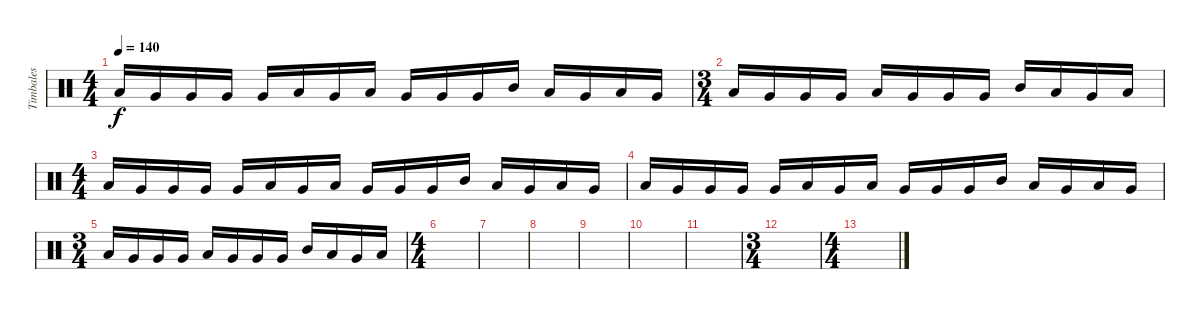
\track ("Timbales" "Timbales") {instrument percussion}
\staff {score}
\articulation defaults
\ts (4 4)
\tempo 140
\clef neutral
\ks c "Low Tom (hit)".16{dy f} "Very Low Tom (hit)".16 "Very Low Tom (hit)".16 "Very Low Tom (hit)".16 "Very Low Tom (hit)".16 "Low Tom (hit)".16 "Very Low Tom (hit)".16 "Low Tom (hit)".16 "Very Low Tom (hit)".16 "Very Low Tom (hit)".16 "Very Low Tom (hit)".16 "Mid Tom (hit)".16 "Low Tom (hit)".16 "Very Low Tom (hit)".16 "Low Floor Tom (hit)".16 "Very Low Tom (hit)".16
|
\ts (3 4)
"Low Tom (hit)".16 "Very Low Tom (hit)".16 "Very Low Tom (hit)".16 "Very Low Tom (hit)".16 "Low Tom (hit)".16 "Very Low Tom (hit)".16 "Very Low Tom (hit)".16 "Very Low Tom (hit)".16 "Mid Tom (hit)".16 "Low Tom (hit)".16 "Very Low Tom (hit)".16 "Low Floor Tom (hit)".16 |
\ts (4 4)
"Low Tom (hit)".16 "Very Low Tom (hit)".16 "Very Low Tom (hit)".16 "Very Low Tom (hit)".16 "Very Low Tom (hit)".16 "Low Tom (hit)".16 "Very Low Tom (hit)".16 "Low Tom (hit)".16 "Very Low Tom (hit)".16 "Very Low Tom (hit)".16 "Very Low Tom (hit)".16 "Mid Tom (hit)".16 "Low Tom (hit)".16 "Very Low Tom (hit)".16 "Low Floor Tom (hit)".16 "Very Low Tom (hit)".16 |
"Low Tom (hit)".16 "Very Low Tom (hit)".16 "Very Low Tom (hit)".16 "Very Low Tom (hit)".16 "Very Low Tom (hit)".16 "Low Tom (hit)".16 "Very Low Tom (hit)".16 "Low Tom (hit)".16 "Very Low Tom (hit)".16 "Very Low Tom (hit)".16 "Very Low Tom (hit)".16 "Mid Tom (hit)".16 "Low Tom (hit)".16 "Very Low Tom (hit)".16 "Low Floor Tom (hit)".16 "Very Low Tom (hit)".16 |
\ts (3 4)
"Low Tom (hit)".16 "Very Low Tom (hit)".16 "Very Low Tom (hit)".16 "Very Low Tom (hit)".16 "Low Tom (hit)".16 "Very Low Tom (hit)".16 "Very Low Tom (hit)".16 "Very Low Tom (hit)".16 "Mid Tom (hit)".16 "Low Tom (hit)".16 "Very Low Tom (hit)".16 "Low Floor Tom (hit)".16 |
\ts (4 4)
|
|
|
|
|
|
\ts (3 4)
|
\ts (4 4)
